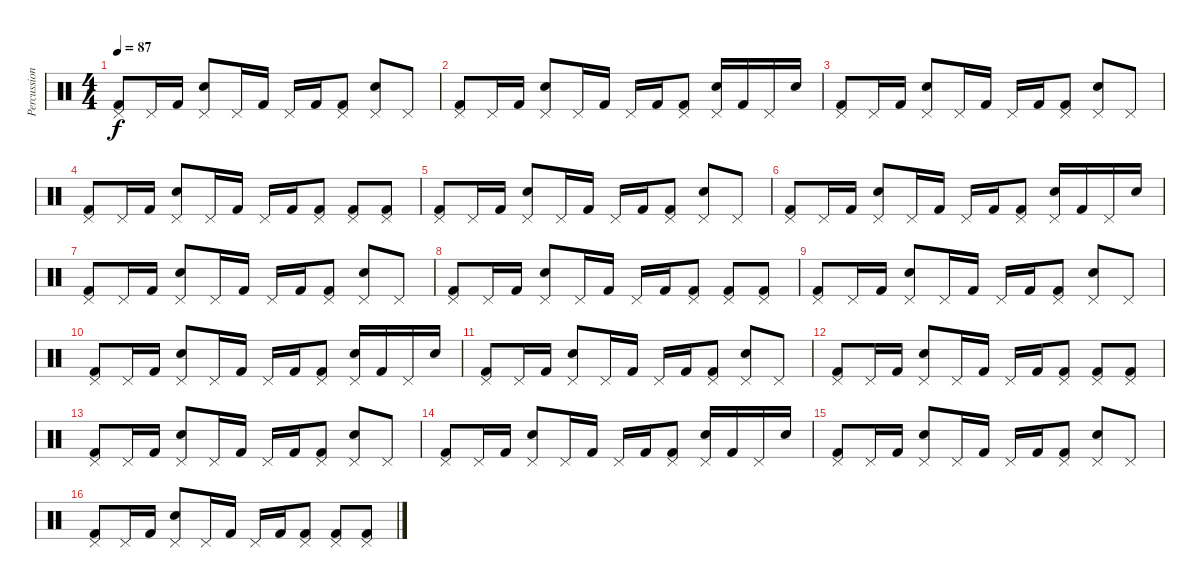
\track ("Percussion" "Percussion") {instrument percussion}
\staff {score}
\articulation defaults
\ts (4 4)
\tempo 87
\clef neutral
\ks c
("Kick (hit) 2" "Pedal Hi-Hat (hit)").8{dy f} "Pedal Hi-Hat (hit)".16 "Kick (hit) 2".16 ("Snare (hit) 2" "Pedal Hi-Hat (hit)").8 "Pedal Hi-Hat (hit)".16 "Kick (hit) 2".16 "Pedal Hi-Hat (hit)".16 "Kick (hit) 2".16 ("Kick (hit) 2" "Pedal Hi-Hat (hit)").8 ("Snare (hit) 2" "Pedal Hi-Hat (hit)").8 "Pedal Hi-Hat (hit)".8 |
("Kick (hit) 2" "Pedal Hi-Hat (hit)").8 "Pedal Hi-Hat (hit)".16 "Kick (hit) 2".16 ("Snare (hit) 2" "Pedal Hi-Hat (hit)").8 "Pedal Hi-Hat (hit)".16 "Kick (hit) 2".16 "Pedal Hi-Hat (hit)".16 "Kick (hit) 2".16 ("Kick (hit) 2" "Pedal Hi-Hat (hit)").8 ("Snare (hit) 2" "Pedal Hi-Hat (hit)").16 "Kick (hit) 2".16 "Pedal Hi-Hat (hit)".16 "Snare (hit) 2".16 |
("Kick (hit) 2" "Pedal Hi-Hat (hit)").8 "Pedal Hi-Hat (hit)".16 "Kick (hit) 2".16 ("Snare (hit) 2" "Pedal Hi-Hat (hit)").8 "Pedal Hi-Hat (hit)".16 "Kick (hit) 2".16 "Pedal Hi-Hat (hit)".16 "Kick (hit) 2".16 ("Kick (hit) 2" "Pedal Hi-Hat (hit)").8 ("Snare (hit) 2" "Pedal Hi-Hat (hit)").8 "Pedal Hi-Hat (hit)".8 |
("Kick (hit) 2" "Pedal Hi-Hat (hit)").8 "Pedal Hi-Hat (hit)".16 "Kick (hit) 2".16 ("Snare (hit) 2" "Pedal Hi-Hat (hit)").8 "Pedal Hi-Hat (hit)".16 "Kick (hit) 2".16 "Pedal Hi-Hat (hit)".16 "Kick (hit) 2".16 ("Kick (hit) 2" "Pedal Hi-Hat (hit)").8 ("Kick (hit) 2" "Pedal Hi-Hat (hit)").8 ("Kick (hit) 2" "Pedal Hi-Hat (hit)").8 |
("Kick (hit) 2" "Pedal Hi-Hat (hit)").8 "Pedal Hi-Hat (hit)".16 "Kick (hit) 2".16 ("Snare (hit) 2" "Pedal Hi-Hat (hit)").8 "Pedal Hi-Hat (hit)".16 "Kick (hit) 2".16 "Pedal Hi-Hat (hit)".16 "Kick (hit) 2".16 ("Kick (hit) 2" "Pedal Hi-Hat (hit)").8 ("Snare (hit) 2" "Pedal Hi-Hat (hit)").8 "Pedal Hi-Hat (hit)".8 |
("Kick (hit) 2" "Pedal Hi-Hat (hit)").8 "Pedal Hi-Hat (hit)".16 "Kick (hit) 2".16 ("Snare (hit) 2" "Pedal Hi-Hat (hit)").8 "Pedal Hi-Hat (hit)".16 "Kick (hit) 2".16 "Pedal Hi-Hat (hit)".16 "Kick (hit) 2".16 ("Kick (hit) 2" "Pedal Hi-Hat (hit)").8 ("Snare (hit) 2" "Pedal Hi-Hat (hit)").16 "Kick (hit) 2".16 "Pedal Hi-Hat (hit)".16 "Snare (hit) 2".16 |
("Kick (hit) 2" "Pedal Hi-Hat (hit)").8 "Pedal Hi-Hat (hit)".16 "Kick (hit) 2".16 ("Snare (hit) 2" "Pedal Hi-Hat (hit)").8 "Pedal Hi-Hat (hit)".16 "Kick (hit) 2".16 "Pedal Hi-Hat (hit)".16 "Kick (hit) 2".16 ("Kick (hit) 2" "Pedal Hi-Hat (hit)").8 ("Snare (hit) 2" "Pedal Hi-Hat (hit)").8 "Pedal Hi-Hat (hit)".8 |
("Kick (hit) 2" "Pedal Hi-Hat (hit)").8 "Pedal Hi-Hat (hit)".16 "Kick (hit) 2".16 ("Snare (hit) 2" "Pedal Hi-Hat (hit)").8 "Pedal Hi-Hat (hit)".16 "Kick (hit) 2".16 "Pedal Hi-Hat (hit)".16 "Kick (hit) 2".16 ("Kick (hit) 2" "Pedal Hi-Hat (hit)").8 ("Kick (hit) 2" "Pedal Hi-Hat (hit)").8 ("Kick (hit) 2" "Pedal Hi-Hat (hit)").8 |
("Kick (hit) 2" "Pedal Hi-Hat (hit)").8 "Pedal Hi-Hat (hit)".16 "Kick (hit) 2".16 ("Snare (hit) 2" "Pedal Hi-Hat (hit)").8 "Pedal Hi-Hat (hit)".16 "Kick (hit) 2".16 "Pedal Hi-Hat (hit)".16 "Kick (hit) 2".16 ("Kick (hit) 2" "Pedal Hi-Hat (hit)").8 ("Snare (hit) 2" "Pedal Hi-Hat (hit)").8 "Pedal Hi-Hat (hit)".8 |
("Kick (hit) 2" "Pedal Hi-Hat (hit)").8 "Pedal Hi-Hat (hit)".16 "Kick (hit) 2".16 ("Snare (hit) 2" "Pedal Hi-Hat (hit)").8 "Pedal Hi-Hat (hit)".16 "Kick (hit) 2".16 "Pedal Hi-Hat (hit)".16 "Kick (hit) 2".16 ("Kick (hit) 2" "Pedal Hi-Hat (hit)").8 ("Snare (hit) 2" "Pedal Hi-Hat (hit)").16 "Kick (hit) 2".16 "Pedal Hi-Hat (hit)".16 "Snare (hit) 2".16 |
("Kick (hit) 2" "Pedal Hi-Hat (hit)").8 "Pedal Hi-Hat (hit)".16 "Kick (hit) 2".16 ("Snare (hit) 2" "Pedal Hi-Hat (hit)").8 "Pedal Hi-Hat (hit)".16 "Kick (hit) 2".16 "Pedal Hi-Hat (hit)".16 "Kick (hit) 2".16 ("Kick (hit) 2" "Pedal Hi-Hat (hit)").8 ("Snare (hit) 2" "Pedal Hi-Hat (hit)").8 "Pedal Hi-Hat (hit)".8 |
("Kick (hit) 2" "Pedal Hi-Hat (hit)").8 "Pedal Hi-Hat (hit)".16 "Kick (hit) 2".16 ("Snare (hit) 2" "Pedal Hi-Hat (hit)").8 "Pedal Hi-Hat (hit)".16 "Kick (hit) 2".16 "Pedal Hi-Hat (hit)".16 "Kick (hit) 2".16 ("Kick (hit) 2" "Pedal Hi-Hat (hit)").8 ("Kick (hit) 2" "Pedal Hi-Hat (hit)").8 ("Kick (hit) 2" "Pedal Hi-Hat (hit)").8 |
("Kick (hit) 2" "Pedal Hi-Hat (hit)").8 "Pedal Hi-Hat (hit)".16 "Kick (hit) 2".16 ("Snare (hit) 2" "Pedal Hi-Hat (hit)").8 "Pedal Hi-Hat (hit)".16 "Kick (hit) 2".16 "Pedal Hi-Hat (hit)".16 "Kick (hit) 2".16 ("Kick (hit) 2" "Pedal Hi-Hat (hit)").8 ("Snare (hit) 2" "Pedal Hi-Hat (hit)").8 "Pedal Hi-Hat (hit)".8 |
("Kick (hit) 2" "Pedal Hi-Hat (hit)").8 "Pedal Hi-Hat (hit)".16 "Kick (hit) 2".16 ("Snare (hit) 2" "Pedal Hi-Hat (hit)").8 "Pedal Hi-Hat (hit)".16 "Kick (hit) 2".16 "Pedal Hi-Hat (hit)".16 "Kick (hit) 2".16 ("Kick (hit) 2" "Pedal Hi-Hat (hit)").8 ("Snare (hit) 2" "Pedal Hi-Hat (hit)").16 "Kick (hit) 2".16 "Pedal Hi-Hat (hit)".16 "Snare (hit) 2".16 |
("Kick (hit) 2" "Pedal Hi-Hat (hit)").8 "Pedal Hi-Hat (hit)".16 "Kick (hit) 2".16 ("Snare (hit) 2" "Pedal Hi-Hat (hit)").8 "Pedal Hi-Hat (hit)".16 "Kick (hit) 2".16 "Pedal Hi-Hat (hit)".16 "Kick (hit) 2".16 ("Kick (hit) 2" "Pedal Hi-Hat (hit)").8 ("Snare (hit) 2" "Pedal Hi-Hat (hit)").8 "Pedal Hi-Hat (hit)".8 |
("Kick (hit) 2" "Pedal Hi-Hat (hit)").8 "Pedal Hi-Hat (hit)".16 "Kick (hit) 2".16 ("Snare (hit) 2" "Pedal Hi-Hat (hit)").8 "Pedal Hi-Hat (hit)".16 "Kick (hit) 2".16 "Pedal Hi-Hat (hit)".16 "Kick (hit) 2".16 ("Kick (hit) 2" "Pedal Hi-Hat (hit)").8 ("Kick (hit) 2" "Pedal Hi-Hat (hit)").8 ("Kick (hit) 2" "Pedal Hi-Hat (hit)").8
